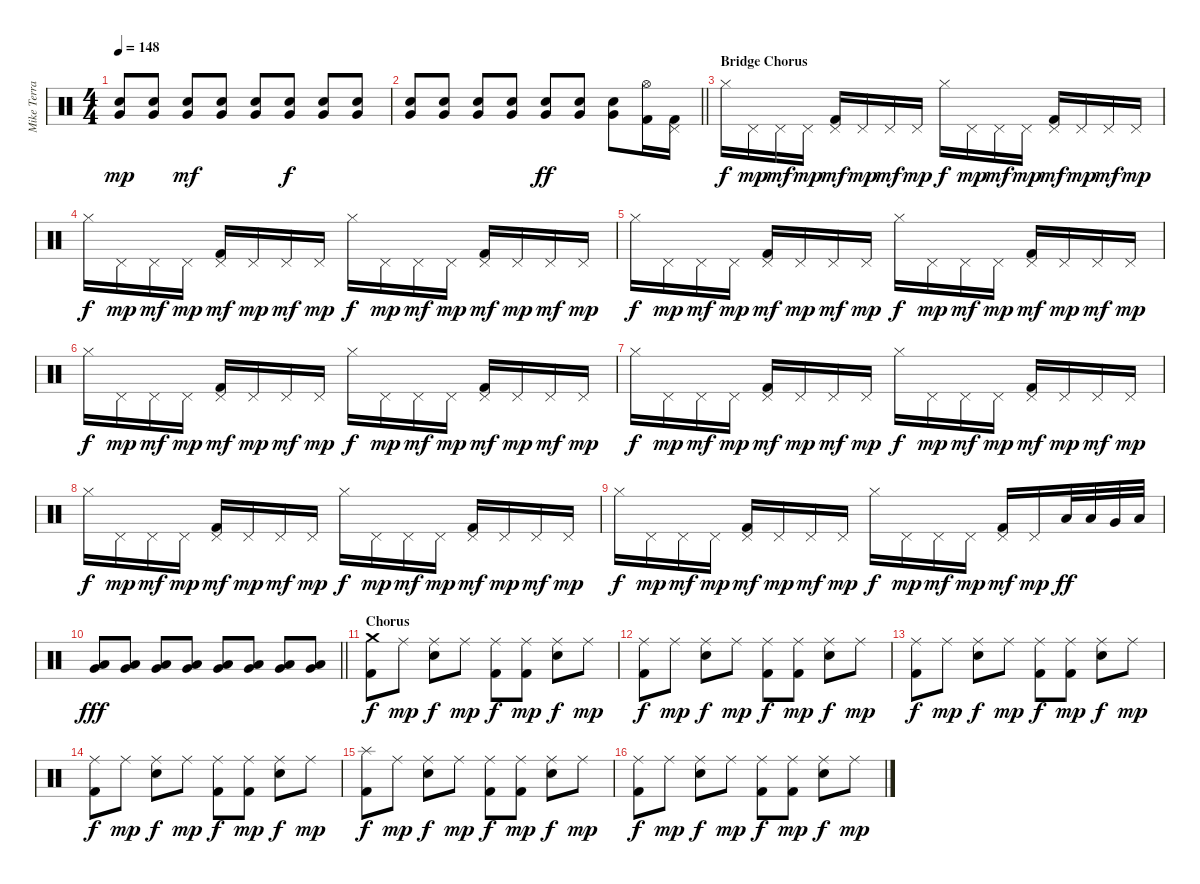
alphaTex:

\track ("Mike Terrana" "Mike Terra") {instrument percussion}
\staff {score}
\articulation defaults
\ts (4 4)
\tempo 148
\clef neutral
\ks c
("Snare (hit) 2" "Very Low Tom (hit)").8{dy mp} ("Snare (hit) 2" "Very Low Tom (hit)").8 ("Snare (hit) 2" "Very Low Tom (hit)").8{dy mf} ("Snare (hit) 2" "Very Low Tom (hit)").8 ("Snare (hit) 2" "Very Low Tom (hit)").8 ("Snare (hit) 2" "Very Low Tom (hit)").8{dy f} ("Snare (hit) 2" "Very Low Tom (hit)").8 ("Snare (hit) 2" "Very Low Tom (hit)").8 |
\barLineRight lightlight
("Snare (hit) 2" "Very Low Tom (hit)").8 ("Snare (hit) 2" "Very Low Tom (hit)").8 ("Snare (hit) 2" "Very Low Tom (hit)").8 ("Snare (hit) 2" "Very Low Tom (hit)").8 ("Snare (hit) 2" "Very Low Tom (hit)").8{dy ff} ("Snare (hit) 2" "Very Low Tom (hit)").8 ("Snare (hit) 2" "Very Low Tom (hit)").8 ("Hi-Hat (open)" "Kick (hit) 2").16 ("Pedal Hi-Hat (hit)" "Kick (hit) 2").16 |
\section ("" "Bridge Chorus")
"Hi-Hat (closed)".16{dy f} "Pedal Hi-Hat (hit)".16{dy mp} "Pedal Hi-Hat (hit)".16{dy mf} "Pedal Hi-Hat (hit)".16{dy mp} ("Pedal Hi-Hat (hit)" "Kick (hit) 2").16{dy mf} "Pedal Hi-Hat (hit)".16{dy mp} "Pedal Hi-Hat (hit)".16{dy mf} "Pedal Hi-Hat (hit)".16{dy mp} "Hi-Hat (closed)".16{dy f} "Pedal Hi-Hat (hit)".16{dy mp} "Pedal Hi-Hat (hit)".16{dy mf} "Pedal Hi-Hat (hit)".16{dy mp} ("Pedal Hi-Hat (hit)" "Kick (hit) 2").16{dy mf} "Pedal Hi-Hat (hit)".16{dy mp} "Pedal Hi-Hat (hit)".16{dy mf} "Pedal Hi-Hat (hit)".16{dy mp} |
"Hi-Hat (closed)".16{dy f} "Pedal Hi-Hat (hit)".16{dy mp} "Pedal Hi-Hat (hit)".16{dy mf} "Pedal Hi-Hat (hit)".16{dy mp} ("Pedal Hi-Hat (hit)" "Kick (hit) 2").16{dy mf} "Pedal Hi-Hat (hit)".16{dy mp} "Pedal Hi-Hat (hit)".16{dy mf} "Pedal Hi-Hat (hit)".16{dy mp} "Hi-Hat (closed)".16{dy f} "Pedal Hi-Hat (hit)".16{dy mp} "Pedal Hi-Hat (hit)".16{dy mf} "Pedal Hi-Hat (hit)".16{dy mp} ("Pedal Hi-Hat (hit)" "Kick (hit) 2").16{dy mf} "Pedal Hi-Hat (hit)".16{dy mp} "Pedal Hi-Hat (hit)".16{dy mf} "Pedal Hi-Hat (hit)".16{dy mp} |
"Hi-Hat (closed)".16{dy f} "Pedal Hi-Hat (hit)".16{dy mp} "Pedal Hi-Hat (hit)".16{dy mf} "Pedal Hi-Hat (hit)".16{dy mp} ("Pedal Hi-Hat (hit)" "Kick (hit) 2").16{dy mf} "Pedal Hi-Hat (hit)".16{dy mp} "Pedal Hi-Hat (hit)".16{dy mf} "Pedal Hi-Hat (hit)".16{dy mp} "Hi-Hat (closed)".16{dy f} "Pedal Hi-Hat (hit)".16{dy mp} "Pedal Hi-Hat (hit)".16{dy mf} "Pedal Hi-Hat (hit)".16{dy mp} ("Pedal Hi-Hat (hit)" "Kick (hit) 2").16{dy mf} "Pedal Hi-Hat (hit)".16{dy mp} "Pedal Hi-Hat (hit)".16{dy mf} "Pedal Hi-Hat (hit)".16{dy mp} |
"Hi-Hat (closed)".16{dy f} "Pedal Hi-Hat (hit)".16{dy mp} "Pedal Hi-Hat (hit)".16{dy mf} "Pedal Hi-Hat (hit)".16{dy mp} ("Pedal Hi-Hat (hit)" "Kick (hit) 2").16{dy mf} "Pedal Hi-Hat (hit)".16{dy mp} "Pedal Hi-Hat (hit)".16{dy mf} "Pedal Hi-Hat (hit)".16{dy mp} "Hi-Hat (closed)".16{dy f} "Pedal Hi-Hat (hit)".16{dy mp} "Pedal Hi-Hat (hit)".16{dy mf} "Pedal Hi-Hat (hit)".16{dy mp} ("Pedal Hi-Hat (hit)" "Kick (hit) 2").16{dy mf} "Pedal Hi-Hat (hit)".16{dy mp} "Pedal Hi-Hat (hit)".16{dy mf} "Pedal Hi-Hat (hit)".16{dy mp} |
"Hi-Hat (closed)".16{dy f} "Pedal Hi-Hat (hit)".16{dy mp} "Pedal Hi-Hat (hit)".16{dy mf} "Pedal Hi-Hat (hit)".16{dy mp} ("Pedal Hi-Hat (hit)" "Kick (hit) 2").16{dy mf} "Pedal Hi-Hat (hit)".16{dy mp} "Pedal Hi-Hat (hit)".16{dy mf} "Pedal Hi-Hat (hit)".16{dy mp} "Hi-Hat (closed)".16{dy f} "Pedal Hi-Hat (hit)".16{dy mp} "Pedal Hi-Hat (hit)".16{dy mf} "Pedal Hi-Hat (hit)".16{dy mp} ("Pedal Hi-Hat (hit)" "Kick (hit) 2").16{dy mf} "Pedal Hi-Hat (hit)".16{dy mp} "Pedal Hi-Hat (hit)".16{dy mf} "Pedal Hi-Hat (hit)".16{dy mp} |
"Hi-Hat (closed)".16{dy f} "Pedal Hi-Hat (hit)".16{dy mp} "Pedal Hi-Hat (hit)".16{dy mf} "Pedal Hi-Hat (hit)".16{dy mp} ("Pedal Hi-Hat (hit)" "Kick (hit) 2").16{dy mf} "Pedal Hi-Hat (hit)".16{dy mp} "Pedal Hi-Hat (hit)".16{dy mf} "Pedal Hi-Hat (hit)".16{dy mp} "Hi-Hat (closed)".16{dy f} "Pedal Hi-Hat (hit)".16{dy mp} "Pedal Hi-Hat (hit)".16{dy mf} "Pedal Hi-Hat (hit)".16{dy mp} ("Pedal Hi-Hat (hit)" "Kick (hit) 2").16{dy mf} "Pedal Hi-Hat (hit)".16{dy mp} "Pedal Hi-Hat (hit)".16{dy mf} "Pedal Hi-Hat (hit)".16{dy mp} |
"Hi-Hat (closed)".16{dy f} "Pedal Hi-Hat (hit)".16{dy mp} "Pedal Hi-Hat (hit)".16{dy mf} "Pedal Hi-Hat (hit)".16{dy mp} ("Pedal Hi-Hat (hit)" "Kick (hit) 2").16{dy mf} "Pedal Hi-Hat (hit)".16{dy mp} "Pedal Hi-Hat (hit)".16{dy mf} "Pedal Hi-Hat (hit)".16{dy mp} "Hi-Hat (closed)".16{dy f} "Pedal Hi-Hat (hit)".16{dy mp} "Pedal Hi-Hat (hit)".16{dy mf} "Pedal Hi-Hat (hit)".16{dy mp} ("Pedal Hi-Hat (hit)" "Kick (hit) 2").16{dy mf} "Pedal Hi-Hat (hit)".16{dy mp} "Low Tom (hit)".32{dy ff} "Low Tom (hit)".32 "Very Low Tom (hit)".32 "Low Floor Tom (hit)".32 |
\barLineRight lightlight
("Low Tom (hit)" "Very Low Tom (hit)").8{dy fff} ("Low Tom (hit)" "Very Low Tom (hit)").8 ("Low Tom (hit)" "Very Low Tom (hit)").8 ("Low Tom (hit)" "Very Low Tom (hit)").8 ("Low Tom (hit)" "Very Low Tom (hit)").8 ("Low Tom (hit)" "Very Low Tom (hit)").8 ("Low Tom (hit)" "Very Low Tom (hit)").8 ("Low Tom (hit)" "Very Low Tom (hit)").8 |
\section ("" "Chorus")
("Crash medium (hit)" "Kick (hit) 2").8{dy f} "Ride (middle)".8{dy mp} ("Ride (middle)" "Snare (hit) 2").8{dy f} "Ride (middle)".8{dy mp} ("Ride (middle)" "Kick (hit) 2").8{dy f} ("Ride (middle)" "Kick (hit) 2").8{dy mp} ("Ride (middle)" "Snare (hit) 2").8{dy f} "Ride (middle)".8{dy mp} |
("Ride (middle)" "Kick (hit) 2").8{dy f} "Ride (middle)".8{dy mp} ("Ride (middle)" "Snare (hit) 2").8{dy f} "Ride (middle)".8{dy mp} ("Ride (middle)" "Kick (hit) 2").8{dy f} ("Ride (middle)" "Kick (hit) 2").8{dy mp} ("Ride (middle)" "Snare (hit) 2").8{dy f} "Ride (middle)".8{dy mp} |
("Ride (middle)" "Kick (hit) 2").8{dy f} "Ride (middle)".8{dy mp} ("Ride (middle)" "Snare (hit) 2").8{dy f} "Ride (middle)".8{dy mp} ("Ride (middle)" "Kick (hit) 2").8{dy f} ("Ride (middle)" "Kick (hit) 2").8{dy mp} ("Ride (middle)" "Snare (hit) 2").8{dy f} "Ride (middle)".8{dy mp} |
("Ride (middle)" "Kick (hit) 2").8{dy f} "Ride (middle)".8{dy mp} ("Ride (middle)" "Snare (hit) 2").8{dy f} "Ride (middle)".8{dy mp} ("Ride (middle)" "Kick (hit) 2").8{dy f} ("Ride (middle)" "Kick (hit) 2").8{dy mp} ("Ride (middle)" "Snare (hit) 2").8{dy f} "Ride (middle)".8{dy mp} |
("Splash (hit)" "Kick (hit) 2").8{dy f} "Ride (middle)".8{dy mp} ("Ride (middle)" "Snare (hit) 2").8{dy f} "Ride (middle)".8{dy mp} ("Ride (middle)" "Kick (hit) 2").8{dy f} ("Ride (middle)" "Kick (hit) 2").8{dy mp} ("Ride (middle)" "Snare (hit) 2").8{dy f} "Ride (middle)".8{dy mp} |
("Ride (middle)" "Kick (hit) 2").8{dy f} "Ride (middle)".8{dy mp} ("Ride (middle)" "Snare (hit) 2").8{dy f} "Ride (middle)".8{dy mp} ("Ride (middle)" "Kick (hit) 2").8{dy f} ("Ride (middle)" "Kick (hit) 2").8{dy mp} ("Ride (middle)" "Snare (hit) 2").8{dy f} "Ride (middle)".8{dy mp}
